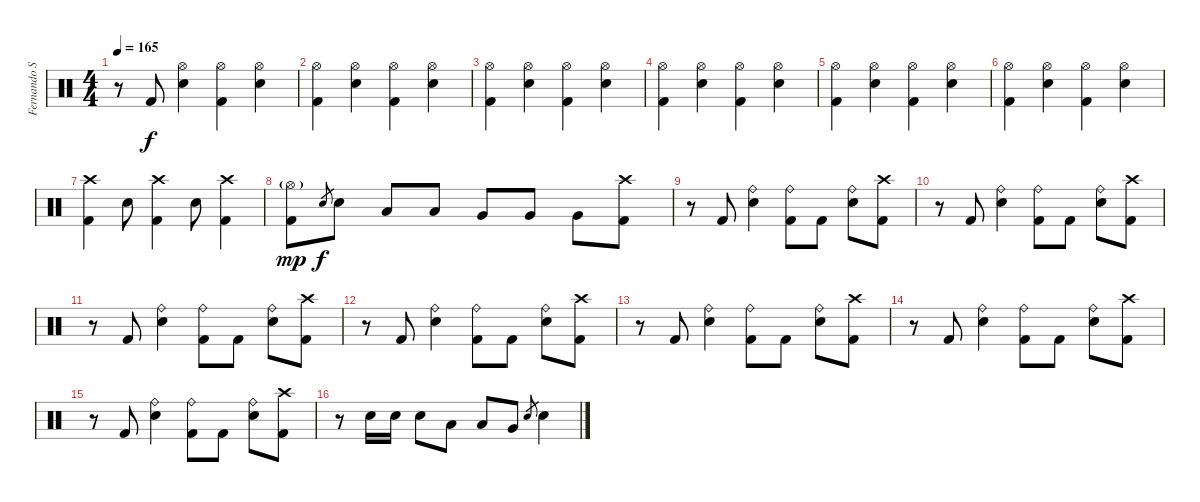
\track ("Fernando Scarcella" "Fernando S") {instrument percussion}
\staff {score}
\articulation defaults
\ts (4 4)
\tempo 165
\clef neutral
\ks c
r.8{dy f} "Kick (hit) 2".8 ("Hi-Hat (open)" "Snare (hit) 2").4 ("Hi-Hat (open)" "Kick (hit) 2").4 ("Hi-Hat (open)" "Snare (hit) 2").4 |
("Hi-Hat (open)" "Kick (hit) 2").4 ("Hi-Hat (open)" "Snare (hit) 2").4 ("Hi-Hat (open)" "Kick (hit) 2").4 ("Hi-Hat (open)" "Snare (hit) 2").4 |
("Hi-Hat (open)" "Kick (hit) 2").4 ("Hi-Hat (open)" "Snare (hit) 2").4 ("Hi-Hat (open)" "Kick (hit) 2").4 ("Hi-Hat (open)" "Snare (hit) 2").4 |
("Hi-Hat (open)" "Kick (hit) 2").4 ("Hi-Hat (open)" "Snare (hit) 2").4 ("Hi-Hat (open)" "Kick (hit) 2").4 ("Hi-Hat (open)" "Snare (hit) 2").4 |
("Hi-Hat (open)" "Kick (hit) 2").4 ("Hi-Hat (open)" "Snare (hit) 2").4 ("Hi-Hat (open)" "Kick (hit) 2").4 ("Hi-Hat (open)" "Snare (hit) 2").4 |
("Hi-Hat (open)" "Kick (hit) 2").4 ("Hi-Hat (open)" "Snare (hit) 2").4 ("Hi-Hat (open)" "Kick (hit) 2").4 ("Hi-Hat (open)" "Snare (hit) 2").4 |
("Crash high (hit)" "Kick (hit) 2").4 "Snare (hit) 2".8 ("Crash high (hit)" "Kick (hit) 2").4 "Snare (hit) 2".8 ("Crash high (hit)" "Kick (hit) 2").4 |
("Hi-Hat (open)"{g} "Kick (hit) 2").8{dy mp} "Snare (hit) 2".8{gr dy f} "Snare (hit) 2".8 "Low Tom (hit)".8 "Low Tom (hit)".8 "Very Low Tom (hit)".8 "Very Low Tom (hit)".8 "Very Low Tom (hit)".8 ("Crash high (hit)" "Kick (hit) 2").8 |
r.8 "Kick (hit) 2".8 ("Ride (bell)" "Snare (hit) 2").4 ("Ride (bell)" "Kick (hit) 2").8 "Kick (hit) 2".8 ("Ride (bell)" "Snare (hit) 2").8 ("Crash high (hit)" "Kick (hit) 2").8 |
r.8 "Kick (hit) 2".8 ("Ride (bell)" "Snare (hit) 2").4 ("Ride (bell)" "Kick (hit) 2").8 "Kick (hit) 2".8 ("Ride (bell)" "Snare (hit) 2").8 ("Crash high (hit)" "Kick (hit) 2").8 |
r.8 "Kick (hit) 2".8 ("Ride (bell)" "Snare (hit) 2").4 ("Ride (bell)" "Kick (hit) 2").8 "Kick (hit) 2".8 ("Ride (bell)" "Snare (hit) 2").8 ("Crash high (hit)" "Kick (hit) 2").8 |
r.8 "Kick (hit) 2".8 ("Ride (bell)" "Snare (hit) 2").4 ("Ride (bell)" "Kick (hit) 2").8 "Kick (hit) 2".8 ("Ride (bell)" "Snare (hit) 2").8 ("Crash high (hit)" "Kick (hit) 2").8 |
r.8 "Kick (hit) 2".8 ("Ride (bell)" "Snare (hit) 2").4 ("Ride (bell)" "Kick (hit) 2").8 "Kick (hit) 2".8 ("Ride (bell)" "Snare (hit) 2").8 ("Crash high (hit)" "Kick (hit) 2").8 |
r.8 "Kick (hit) 2".8 ("Ride (bell)" "Snare (hit) 2").4 ("Ride (bell)" "Kick (hit) 2").8 "Kick (hit) 2".8 ("Ride (bell)" "Snare (hit) 2").8 ("Crash high (hit)" "Kick (hit) 2").8 |
r.8 "Kick (hit) 2".8 ("Ride (bell)" "Snare (hit) 2").4 ("Ride (bell)" "Kick (hit) 2").8 "Kick (hit) 2".8 ("Ride (bell)" "Snare (hit) 2").8 ("Crash high (hit)" "Kick (hit) 2").8 |
r.8 "Snare (hit) 2".16 "Snare (hit) 2".16 "Snare (hit) 2".8 "Low Tom (hit)".8 "Low Tom (hit)".8 "Very Low Tom (hit)".8 "Snare (hit) 2".8{gr} "Snare (hit) 2".4
